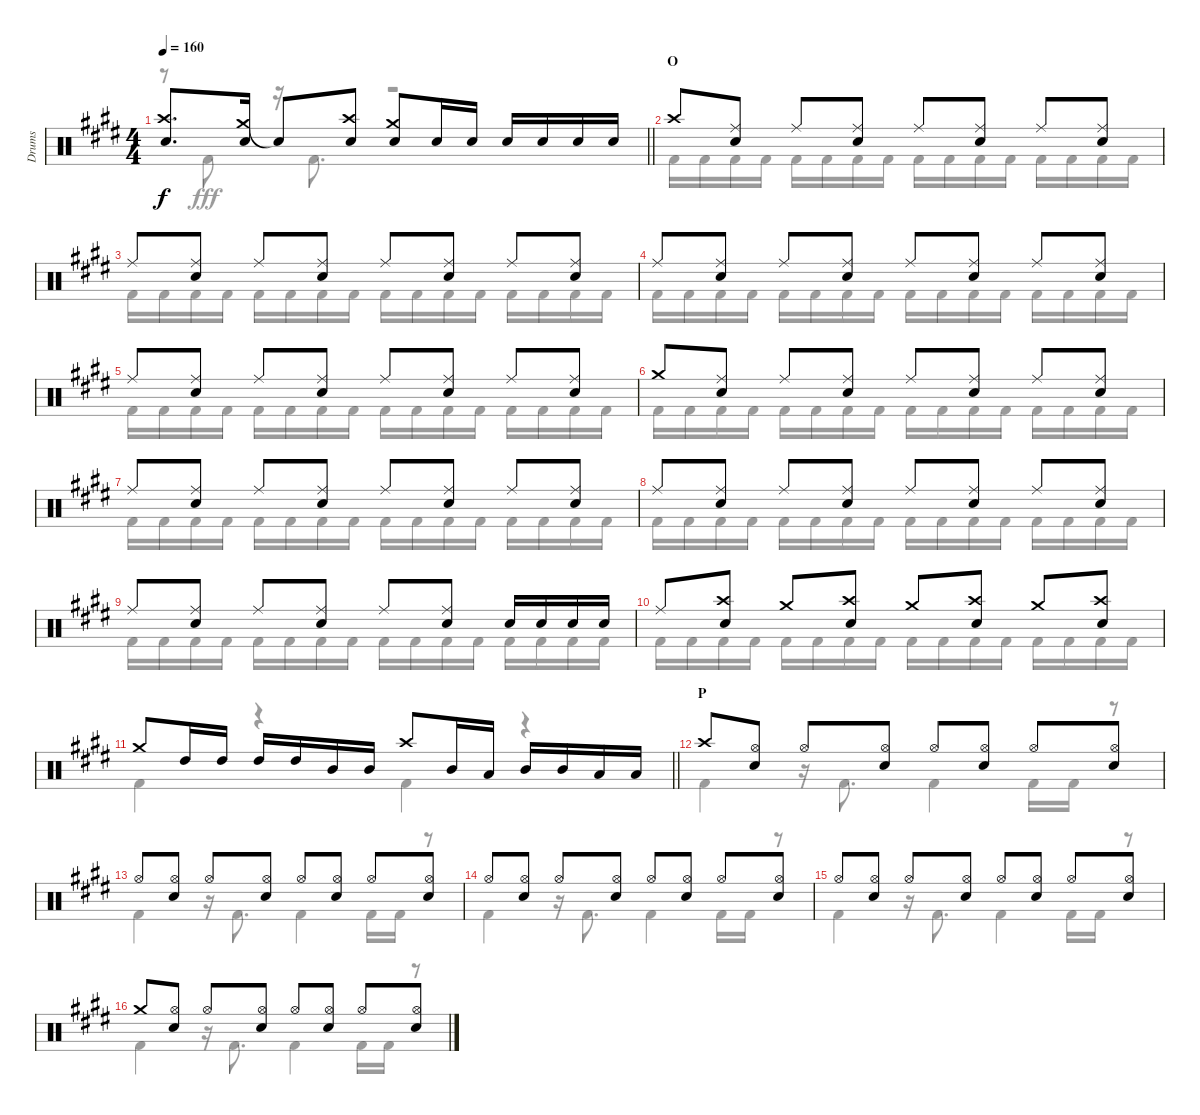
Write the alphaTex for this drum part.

\track ("Drums" "Drums") {instrument percussion}
\staff {score}
\articulation defaults
\voice
\ts (4 4)
\tempo 160
\clef neutral
\barLineRight lightlight
\ks e
("Crash high (hit)" "Snare (hit) 2").8{d dy f} ("Crash medium (hit)" "Snare (hit) 2").16 "Snare (hit)"{t}.8 ("Crash high (hit)" "Snare (hit) 2").8 ("Crash medium (hit)" "Snare (hit) 2").8 "Snare (hit) 2".16 "Snare (hit) 2".16 "Snare (hit) 2".16 "Snare (hit) 2".16 "Snare (hit) 2".16 "Snare (hit) 2".16 |
\section ("" "O")
"Crash high (hit)".8 ("Ride (middle)" "Snare (hit) 2").8 "Ride (middle)".8 ("Ride (middle)" "Snare (hit) 2").8 "Ride (middle)".8 ("Ride (middle)" "Snare (hit) 2").8 "Ride (middle)".8 ("Ride (middle)" "Snare (hit) 2").8 |
"Ride (middle)".8 ("Ride (middle)" "Snare (hit) 2").8 "Ride (middle)".8 ("Ride (middle)" "Snare (hit) 2").8 "Ride (middle)".8 ("Ride (middle)" "Snare (hit) 2").8 "Ride (middle)".8 ("Ride (middle)" "Snare (hit) 2").8 |
"Ride (middle)".8 ("Ride (middle)" "Snare (hit) 2").8 "Ride (middle)".8 ("Ride (middle)" "Snare (hit) 2").8 "Ride (middle)".8 ("Ride (middle)" "Snare (hit) 2").8 "Ride (middle)".8 ("Ride (middle)" "Snare (hit) 2").8 |
"Ride (middle)".8 ("Ride (middle)" "Snare (hit) 2").8 "Ride (middle)".8 ("Ride (middle)" "Snare (hit) 2").8 "Ride (middle)".8 ("Ride (middle)" "Snare (hit) 2").8 "Ride (middle)".8 ("Ride (middle)" "Snare (hit) 2").8 |
"Crash medium (hit)".8 ("Ride (middle)" "Snare (hit) 2").8 "Ride (middle)".8 ("Ride (middle)" "Snare (hit) 2").8 "Ride (middle)".8 ("Ride (middle)" "Snare (hit) 2").8 "Ride (middle)".8 ("Ride (middle)" "Snare (hit) 2").8 |
"Ride (middle)".8 ("Ride (middle)" "Snare (hit) 2").8 "Ride (middle)".8 ("Ride (middle)" "Snare (hit) 2").8 "Ride (middle)".8 ("Ride (middle)" "Snare (hit) 2").8 "Ride (middle)".8 ("Ride (middle)" "Snare (hit) 2").8 |
"Ride (middle)".8 ("Ride (middle)" "Snare (hit) 2").8 "Ride (middle)".8 ("Ride (middle)" "Snare (hit) 2").8 "Ride (middle)".8 ("Ride (middle)" "Snare (hit) 2").8 "Ride (middle)".8 ("Ride (middle)" "Snare (hit) 2").8 |
"Ride (middle)".8 ("Ride (middle)" "Snare (hit) 2").8 "Ride (middle)".8 ("Ride (middle)" "Snare (hit) 2").8 "Ride (middle)".8 ("Ride (middle)" "Snare (hit) 2").8 "Snare (hit) 2".16 "Snare (hit) 2".16 "Snare (hit) 2".16 "Snare (hit) 2".16 |
"Ride (middle)".8 ("Crash high (hit)" "Snare (hit) 2").8 "Crash medium (hit)".8 ("Crash high (hit)" "Snare (hit) 2").8 "Crash medium (hit)".8 ("Crash high (hit)" "Snare (hit) 2").8 "Crash medium (hit)".8 ("Crash high (hit)" "Snare (hit) 2").8 |
\barLineRight lightlight "Crash medium (hit)".8 "High Tom (hit)".16 "High Tom (hit)".16 "High Tom (hit)".16 "High Tom (hit)".16 "Mid Tom (hit)".16 "Mid Tom (hit)".16 "Crash high (hit)".8 "Mid Tom (hit)".16 "Low Tom (hit)".16 "Mid Tom (hit)".16 "Mid Tom (hit)".16 "Low Tom (hit)".16 "Low Tom (hit)".16
|
\section ("" "P")
"Crash high (hit)".8 ("Hi-Hat (open)" "Snare (hit) 2").8 "Hi-Hat (open)".8 ("Hi-Hat (open)" "Snare (hit) 2").8 "Hi-Hat (open)".8 ("Hi-Hat (open)" "Snare (hit) 2").8 "Hi-Hat (open)".8 ("Hi-Hat (open)" "Snare (hit) 2").8 |
"Hi-Hat (open)".8 ("Hi-Hat (open)" "Snare (hit) 2").8 "Hi-Hat (open)".8 ("Hi-Hat (open)" "Snare (hit) 2").8 "Hi-Hat (open)".8 ("Hi-Hat (open)" "Snare (hit) 2").8 "Hi-Hat (open)".8 ("Hi-Hat (open)" "Snare (hit) 2").8 |
"Hi-Hat (open)".8 ("Hi-Hat (open)" "Snare (hit) 2").8 "Hi-Hat (open)".8 ("Hi-Hat (open)" "Snare (hit) 2").8 "Hi-Hat (open)".8 ("Hi-Hat (open)" "Snare (hit) 2").8 "Hi-Hat (open)".8 ("Hi-Hat (open)" "Snare (hit) 2").8 |
"Hi-Hat (open)".8 ("Hi-Hat (open)" "Snare (hit) 2").8 "Hi-Hat (open)".8 ("Hi-Hat (open)" "Snare (hit) 2").8 "Hi-Hat (open)".8 ("Hi-Hat (open)" "Snare (hit) 2").8 "Hi-Hat (open)".8 ("Hi-Hat (open)" "Snare (hit) 2").8 |
"Crash medium (hit)".8 ("Hi-Hat (open)" "Snare (hit) 2").8 "Hi-Hat (open)".8 ("Hi-Hat (open)" "Snare (hit) 2").8 "Hi-Hat (open)".8 ("Hi-Hat (open)" "Snare (hit) 2").8 "Hi-Hat (open)".8 ("Hi-Hat (open)" "Snare (hit) 2").8
\voice
\clef neutral
\ottava regular
\simile none
\barLineRight lightlight
\ks e
r.8{dy fff} "Kick (hit) 2".8 r.16 "Kick (hit) 2".8{d} r.2 |
"Kick (hit) 2".16 "Kick (hit) 2".16 "Kick (hit) 2".16 "Kick (hit) 2".16 "Kick (hit) 2".16 "Kick (hit) 2".16 "Kick (hit) 2".16 "Kick (hit) 2".16 "Kick (hit) 2".16 "Kick (hit) 2".16 "Kick (hit) 2".16 "Kick (hit) 2".16 "Kick (hit) 2".16 "Kick (hit) 2".16 "Kick (hit) 2".16 "Kick (hit) 2".16 |
"Kick (hit) 2".16 "Kick (hit) 2".16 "Kick (hit) 2".16 "Kick (hit) 2".16 "Kick (hit) 2".16 "Kick (hit) 2".16 "Kick (hit) 2".16 "Kick (hit) 2".16 "Kick (hit) 2".16 "Kick (hit) 2".16 "Kick (hit) 2".16 "Kick (hit) 2".16 "Kick (hit) 2".16 "Kick (hit) 2".16 "Kick (hit) 2".16 "Kick (hit) 2".16 |
"Kick (hit) 2".16 "Kick (hit) 2".16 "Kick (hit) 2".16 "Kick (hit) 2".16 "Kick (hit) 2".16 "Kick (hit) 2".16 "Kick (hit) 2".16 "Kick (hit) 2".16 "Kick (hit) 2".16 "Kick (hit) 2".16 "Kick (hit) 2".16 "Kick (hit) 2".16 "Kick (hit) 2".16 "Kick (hit) 2".16 "Kick (hit) 2".16 "Kick (hit) 2".16 |
"Kick (hit) 2".16 "Kick (hit) 2".16 "Kick (hit) 2".16 "Kick (hit) 2".16 "Kick (hit) 2".16 "Kick (hit) 2".16 "Kick (hit) 2".16 "Kick (hit) 2".16 "Kick (hit) 2".16 "Kick (hit) 2".16 "Kick (hit) 2".16 "Kick (hit) 2".16 "Kick (hit) 2".16 "Kick (hit) 2".16 "Kick (hit) 2".16 "Kick (hit) 2".16 |
"Kick (hit) 2".16 "Kick (hit) 2".16 "Kick (hit) 2".16 "Kick (hit) 2".16 "Kick (hit) 2".16 "Kick (hit) 2".16 "Kick (hit) 2".16 "Kick (hit) 2".16 "Kick (hit) 2".16 "Kick (hit) 2".16 "Kick (hit) 2".16 "Kick (hit) 2".16 "Kick (hit) 2".16 "Kick (hit) 2".16 "Kick (hit) 2".16 "Kick (hit) 2".16 |
"Kick (hit) 2".16 "Kick (hit) 2".16 "Kick (hit) 2".16 "Kick (hit) 2".16 "Kick (hit) 2".16 "Kick (hit) 2".16 "Kick (hit) 2".16 "Kick (hit) 2".16 "Kick (hit) 2".16 "Kick (hit) 2".16 "Kick (hit) 2".16 "Kick (hit) 2".16 "Kick (hit) 2".16 "Kick (hit) 2".16 "Kick (hit) 2".16 "Kick (hit) 2".16 |
"Kick (hit) 2".16 "Kick (hit) 2".16 "Kick (hit) 2".16 "Kick (hit) 2".16 "Kick (hit) 2".16 "Kick (hit) 2".16 "Kick (hit) 2".16 "Kick (hit) 2".16 "Kick (hit) 2".16 "Kick (hit) 2".16 "Kick (hit) 2".16 "Kick (hit) 2".16 "Kick (hit) 2".16 "Kick (hit) 2".16 "Kick (hit) 2".16 "Kick (hit) 2".16 |
"Kick (hit) 2".16 "Kick (hit) 2".16 "Kick (hit) 2".16 "Kick (hit) 2".16 "Kick (hit) 2".16 "Kick (hit) 2".16 "Kick (hit) 2".16 "Kick (hit) 2".16 "Kick (hit) 2".16 "Kick (hit) 2".16 "Kick (hit) 2".16 "Kick (hit) 2".16 "Kick (hit) 2".16 "Kick (hit) 2".16 "Kick (hit) 2".16 "Kick (hit) 2".16 |
"Kick (hit) 2".16 "Kick (hit) 2".16 "Kick (hit) 2".16 "Kick (hit) 2".16 "Kick (hit) 2".16 "Kick (hit) 2".16 "Kick (hit) 2".16 "Kick (hit) 2".16 "Kick (hit) 2".16 "Kick (hit) 2".16 "Kick (hit) 2".16 "Kick (hit) 2".16 "Kick (hit) 2".16 "Kick (hit) 2".16 "Kick (hit) 2".16 "Kick (hit) 2".16 |
\barLineRight lightlight "Kick (hit) 2".4
r.4 "Kick (hit) 2".4 r.4 |
"Kick (hit) 2".4 r.16 "Kick (hit) 2".8{d} "Kick (hit) 2".4 "Kick (hit) 2".16 "Kick (hit) 2".16 r.8 |
"Kick (hit) 2".4 r.16 "Kick (hit) 2".8{d} "Kick (hit) 2".4 "Kick (hit) 2".16 "Kick (hit) 2".16 r.8 |
"Kick (hit) 2".4 r.16 "Kick (hit) 2".8{d} "Kick (hit) 2".4 "Kick (hit) 2".16 "Kick (hit) 2".16 r.8 |
"Kick (hit) 2".4 r.16 "Kick (hit) 2".8{d} "Kick (hit) 2".4 "Kick (hit) 2".16 "Kick (hit) 2".16 r.8 |
"Kick (hit) 2".4 r.16 "Kick (hit) 2".8{d} "Kick (hit) 2".4 "Kick (hit) 2".16 "Kick (hit) 2".16 r.8
